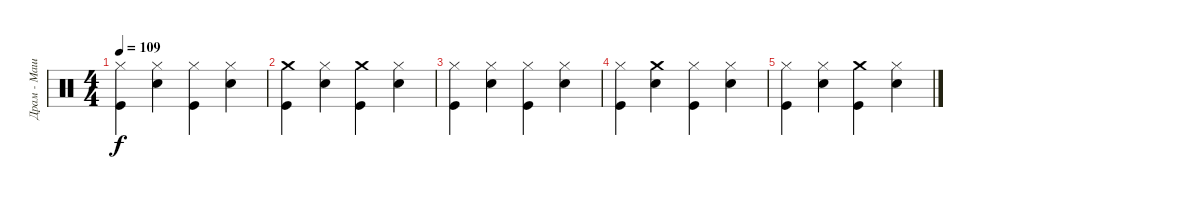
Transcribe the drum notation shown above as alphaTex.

\track ("Драм - Машина" "Драм - Маш") {instrument percussion}
\staff {score}
\articulation defaults
\ts (4 4)
\tempo 109
\clef neutral
\ks c
("Hi-Hat (closed)" "Kick (hit)").4{dy f} ("Hi-Hat (closed)" "Snare (hit) 2").4 ("Hi-Hat (closed)" "Kick (hit)").4 ("Hi-Hat (closed)" "Snare (hit) 2").4 |
("Crash medium (hit)" "Kick (hit)").4 ("Hi-Hat (closed)" "Snare (hit) 2").4 ("Crash medium (hit)" "Kick (hit)").4 ("Hi-Hat (closed)" "Snare (hit) 2").4 |
("Hi-Hat (closed)" "Kick (hit)").4 ("Hi-Hat (closed)" "Snare (hit) 2").4 ("Hi-Hat (closed)" "Kick (hit)").4 ("Hi-Hat (closed)" "Snare (hit) 2").4 |
("Hi-Hat (closed)" "Kick (hit)").4 ("Crash medium (hit)" "Snare (hit) 2").4 ("Hi-Hat (closed)" "Kick (hit)").4 ("Hi-Hat (closed)" "Snare (hit) 2").4 |
("Hi-Hat (closed)" "Kick (hit)").4 ("Hi-Hat (closed)" "Snare (hit) 2").4 ("Crash medium (hit)" "Kick (hit)").4 ("Hi-Hat (closed)" "Snare (hit) 2").4
